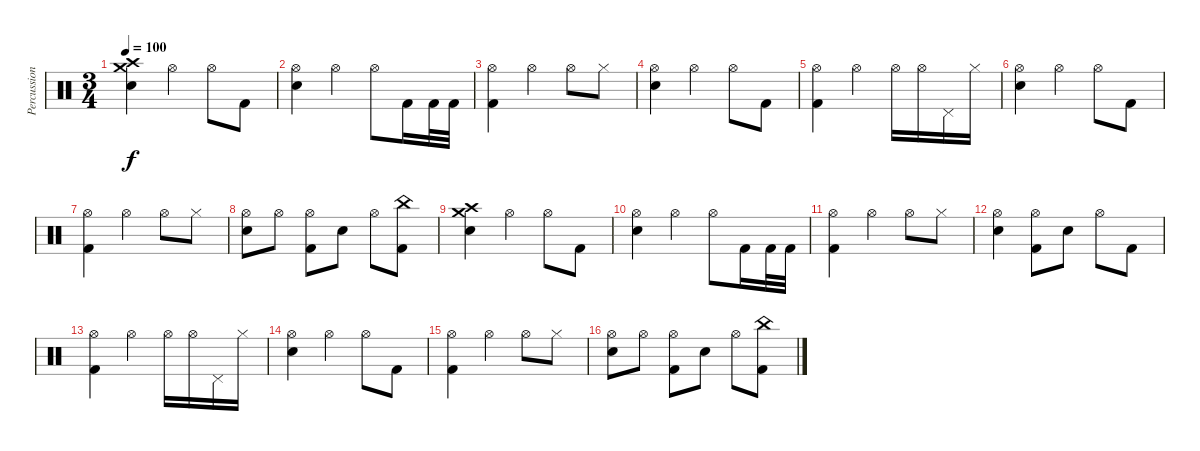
\track ("Percussion" "Percussion") {instrument percussion}
\staff {score}
\articulation defaults
\ts (3 4)
\tempo 100
\clef neutral
\ks c
("Crash high (hit)" "Crash medium (hit)" "Hand Clap (hit)").4{dy f} "Hi-Hat (open)".4 "Hi-Hat (open)".8 "Kick (hit) 2".8 |
("Hi-Hat (open)" "Electric Snare (hit)").4 "Hi-Hat (open)".4 "Hi-Hat (open)".8 "Kick (hit) 2".16 "Kick (hit) 2".32 "Kick (hit) 2".32 |
("Hi-Hat (open)" "Kick (hit) 2").4 "Hi-Hat (open)".4 "Hi-Hat (open)".8 "Hi-Hat (closed)".8 |
("Hi-Hat (open)" "Electric Snare (hit)").4 "Hi-Hat (open)".4 "Hi-Hat (open)".8 "Kick (hit) 2".8 |
("Hi-Hat (open)" "Kick (hit) 2").4 "Hi-Hat (open)".4 "Hi-Hat (open)".16 "Hi-Hat (open)".16 "Pedal Hi-Hat (hit)".16 "Hi-Hat (closed)".16 |
("Hi-Hat (open)" "Electric Snare (hit)").4 "Hi-Hat (open)".4 "Hi-Hat (open)".8 "Kick (hit) 2".8 |
("Hi-Hat (open)" "Kick (hit) 2").4 "Hi-Hat (open)".4 "Hi-Hat (open)".8 "Hi-Hat (closed)".8 |
("Hi-Hat (open)" "Electric Snare (hit)").8 "Hi-Hat (open)".8 ("Hi-Hat (open)" "Kick (hit) 2").8 "Electric Snare (hit)".8 "Hi-Hat (open)".8 ("China (hit)" "Kick (hit) 2").8 |
("Crash high (hit)" "Crash medium (hit)" "Hand Clap (hit)").4 "Hi-Hat (open)".4 "Hi-Hat (open)".8 "Kick (hit) 2".8 |
("Hi-Hat (open)" "Electric Snare (hit)").4 "Hi-Hat (open)".4 "Hi-Hat (open)".8 "Kick (hit) 2".16 "Kick (hit) 2".32 "Kick (hit) 2".32 |
("Hi-Hat (open)" "Kick (hit) 2").4 "Hi-Hat (open)".4 "Hi-Hat (open)".8 "Hi-Hat (closed)".8 |
("Hi-Hat (open)" "Electric Snare (hit)").4 ("Hi-Hat (open)" "Kick (hit) 2").8 "Electric Snare (hit)".8 "Hi-Hat (open)".8 "Kick (hit) 2".8 |
("Hi-Hat (open)" "Kick (hit) 2").4 "Hi-Hat (open)".4 "Hi-Hat (open)".16 "Hi-Hat (open)".16 "Pedal Hi-Hat (hit)".16 "Hi-Hat (closed)".16 |
("Hi-Hat (open)" "Electric Snare (hit)").4 "Hi-Hat (open)".4 "Hi-Hat (open)".8 "Kick (hit) 2".8 |
("Hi-Hat (open)" "Kick (hit) 2").4 "Hi-Hat (open)".4 "Hi-Hat (open)".8 "Hi-Hat (closed)".8 |
("Hi-Hat (open)" "Electric Snare (hit)").8 "Hi-Hat (open)".8 ("Hi-Hat (open)" "Kick (hit) 2").8 "Electric Snare (hit)".8 "Hi-Hat (open)".8 ("China (hit)" "Kick (hit) 2").8
